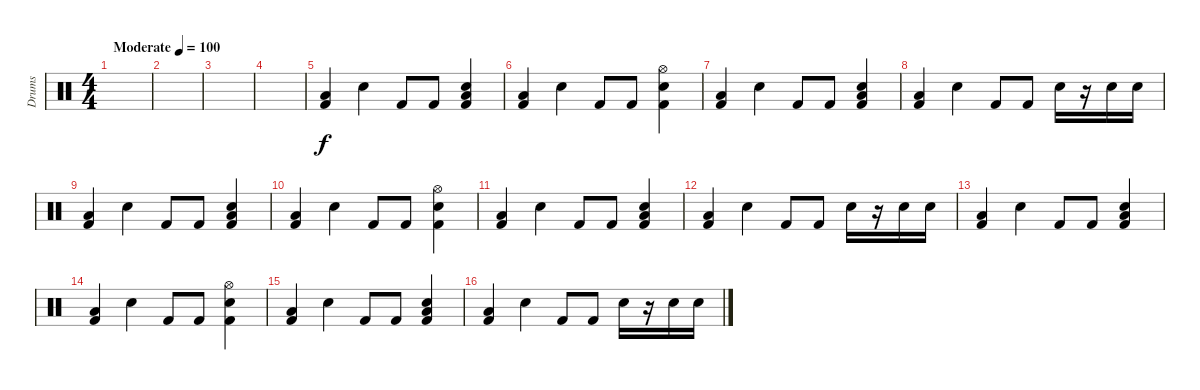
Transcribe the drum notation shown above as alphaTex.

\track ("Drums" "Drums") {instrument percussion}
\staff {score}
\articulation defaults
\ts (4 4)
\tempo (100 "Moderate")
\clef neutral
\ks c
|
|
|
|
("Kick (hit) 2" "Low Tom (hit)").4 "Snare (hit) 2".4 "Kick (hit) 2".8 "Kick (hit) 2".8 ("Kick (hit) 2" "Snare (hit) 2" "Low Tom (hit)").4 |
("Kick (hit) 2" "Low Tom (hit)").4 "Snare (hit) 2".4 "Kick (hit) 2".8 "Kick (hit) 2".8 ("Kick (hit) 2" "Snare (hit) 2" "Hi-Hat (open)").4 |
("Kick (hit) 2" "Low Tom (hit)").4 "Snare (hit) 2".4 "Kick (hit) 2".8 "Kick (hit) 2".8 ("Kick (hit) 2" "Snare (hit) 2" "Low Tom (hit)").4 |
("Kick (hit) 2" "Low Tom (hit)").4 "Snare (hit) 2".4 "Kick (hit) 2".8 "Kick (hit) 2".8 "Snare (hit) 2".16 r.16 "Snare (hit) 2".16 "Snare (hit) 2".16 |
("Kick (hit) 2" "Low Tom (hit)").4 "Snare (hit) 2".4 "Kick (hit) 2".8 "Kick (hit) 2".8 ("Kick (hit) 2" "Snare (hit) 2" "Low Tom (hit)").4 |
("Kick (hit) 2" "Low Tom (hit)").4 "Snare (hit) 2".4 "Kick (hit) 2".8 "Kick (hit) 2".8 ("Kick (hit) 2" "Snare (hit) 2" "Hi-Hat (open)").4 |
("Kick (hit) 2" "Low Tom (hit)").4 "Snare (hit) 2".4 "Kick (hit) 2".8 "Kick (hit) 2".8 ("Kick (hit) 2" "Snare (hit) 2" "Low Tom (hit)").4 |
("Kick (hit) 2" "Low Tom (hit)").4 "Snare (hit) 2".4 "Kick (hit) 2".8 "Kick (hit) 2".8 "Snare (hit) 2".16 r.16 "Snare (hit) 2".16 "Snare (hit) 2".16 |
("Kick (hit) 2" "Low Tom (hit)").4 "Snare (hit) 2".4 "Kick (hit) 2".8 "Kick (hit) 2".8 ("Kick (hit) 2" "Snare (hit) 2" "Low Tom (hit)").4 |
("Kick (hit) 2" "Low Tom (hit)").4 "Snare (hit) 2".4 "Kick (hit) 2".8 "Kick (hit) 2".8 ("Kick (hit) 2" "Snare (hit) 2" "Hi-Hat (open)").4 |
("Kick (hit) 2" "Low Tom (hit)").4 "Snare (hit) 2".4 "Kick (hit) 2".8 "Kick (hit) 2".8 ("Kick (hit) 2" "Snare (hit) 2" "Low Tom (hit)").4 |
("Kick (hit) 2" "Low Tom (hit)").4 "Snare (hit) 2".4 "Kick (hit) 2".8 "Kick (hit) 2".8 "Snare (hit) 2".16 r.16 "Snare (hit) 2".16 "Snare (hit) 2".16
